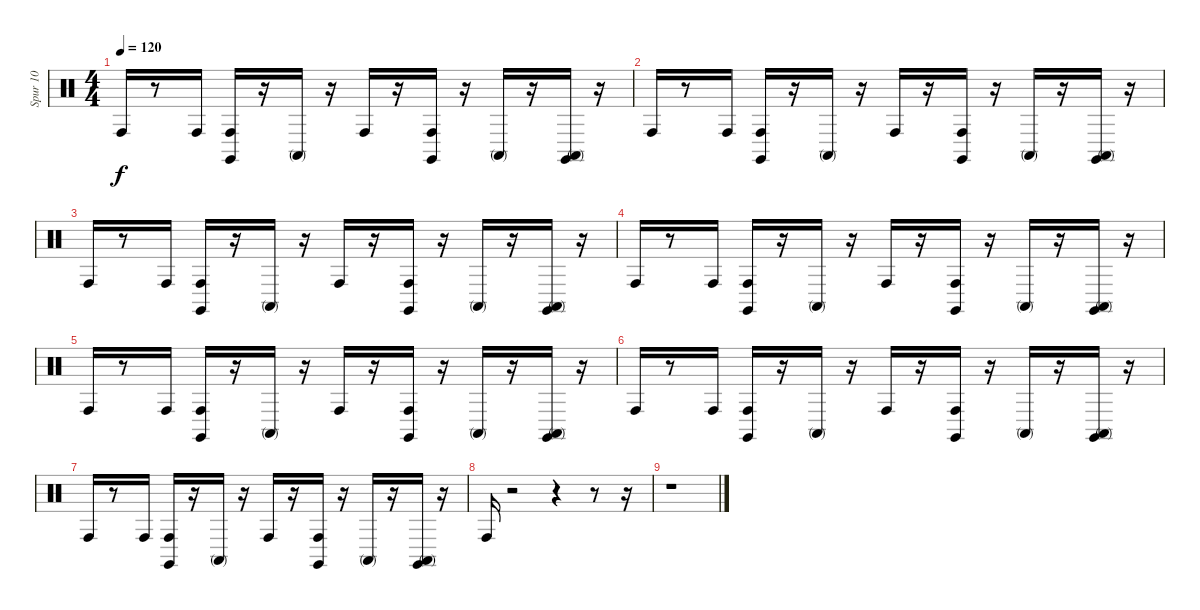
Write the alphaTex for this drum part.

\track ("Spur 10" "Spur 10") {instrument percussion}
\staff {score}
\articulation defaults
\ts (4 4)
\tempo 120
\clef neutral
\ks c "Conga high (hit)".16{dy f}
r.8 "Conga high (hit)".16 ("Conga high (hit)" "Claves (hit)").16 r.16 "Conga high (mute)".16 r.16 "Conga high (hit)".16 r.16 ("Conga high (hit)" "Claves (hit)").16 r.16 "Conga high (mute)".16 r.16 ("Conga high (mute)" "Claves (hit)").16 r.16 |
"Conga high (hit)".16 r.8 "Conga high (hit)".16 ("Conga high (hit)" "Claves (hit)").16 r.16 "Conga high (mute)".16 r.16 "Conga high (hit)".16 r.16 ("Conga high (hit)" "Claves (hit)").16 r.16 "Conga high (mute)".16 r.16 ("Conga high (mute)" "Claves (hit)").16 r.16 |
"Conga high (hit)".16 r.8 "Conga high (hit)".16 ("Conga high (hit)" "Claves (hit)").16 r.16 "Conga high (mute)".16 r.16 "Conga high (hit)".16 r.16 ("Conga high (hit)" "Claves (hit)").16 r.16 "Conga high (mute)".16 r.16 ("Conga high (mute)" "Claves (hit)").16 r.16 |
"Conga high (hit)".16 r.8 "Conga high (hit)".16 ("Claves (hit)" "Conga high (hit)").16 r.16 "Conga high (mute)".16 r.16 "Conga high (hit)".16 r.16 ("Claves (hit)" "Conga high (hit)").16 r.16 "Conga high (mute)".16 r.16 ("Conga high (mute)" "Claves (hit)").16 r.16 |
"Conga high (hit)".16 r.8 "Conga high (hit)".16 ("Conga high (hit)" "Claves (hit)").16 r.16 "Conga high (mute)".16 r.16 "Conga high (hit)".16 r.16 ("Conga high (hit)" "Claves (hit)").16 r.16 "Conga high (mute)".16 r.16 ("Conga high (mute)" "Claves (hit)").16 r.16 |
"Conga high (hit)".16 r.8 "Conga high (hit)".16 ("Conga high (hit)" "Claves (hit)").16 r.16 "Conga high (mute)".16 r.16 "Conga high (hit)".16 r.16 ("Conga high (hit)" "Claves (hit)").16 r.16 "Conga high (mute)".16 r.16 ("Conga high (mute)" "Claves (hit)").16 r.16 |
"Conga high (hit)".16 r.8 "Conga high (hit)".16 ("Conga high (hit)" "Claves (hit)").16 r.16 "Conga high (mute)".16 r.16 "Conga high (hit)".16 r.16 ("Conga high (hit)" "Claves (hit)").16 r.16 "Conga high (mute)".16 r.16 ("Conga high (mute)" "Claves (hit)").16 r.16 |
"Conga high (hit)".16 r.2 r.4 r.8 r.16 |
r.1
